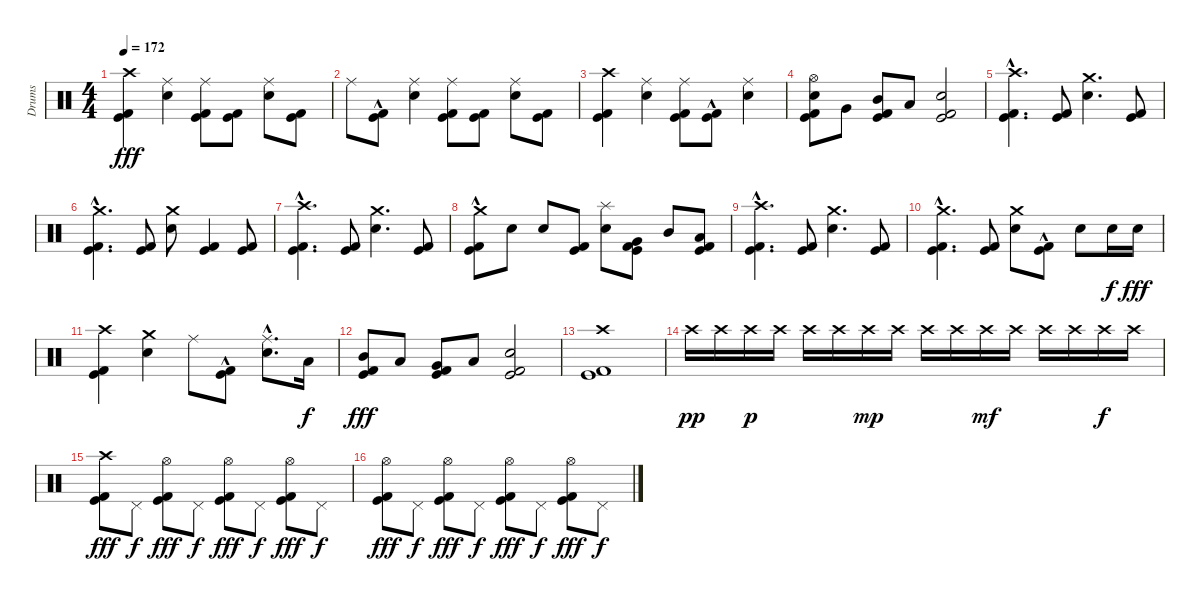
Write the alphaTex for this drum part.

\track ("Drums" "Drums") {instrument percussion}
\staff {score}
\articulation defaults
\ts (4 4)
\tempo 172
\clef neutral
\ks c
("Kick (hit)" "Kick (hit) 2" "Crash high (hit)").4{dy fff} ("Electric Snare (hit)" "Ride (middle)").4 ("Kick (hit)" "Kick (hit) 2" "Ride (middle)").8 ("Kick (hit)" "Kick (hit) 2").8 ("Electric Snare (hit)" "Ride (middle)").8 ("Kick (hit)" "Kick (hit) 2").8 |
"Ride (middle)".8 ("Kick (hit)"{hac} "Kick (hit) 2"{hac}).8 ("Electric Snare (hit)" "Ride (middle)").4 ("Kick (hit)" "Kick (hit) 2" "Ride (middle)").8 ("Kick (hit)" "Kick (hit) 2").8 ("Electric Snare (hit)" "Ride (middle)").8 ("Kick (hit)" "Kick (hit) 2").8 |
("Kick (hit)" "Kick (hit) 2" "Crash high (hit)").4 ("Electric Snare (hit)" "Ride (middle)").4 ("Kick (hit)" "Kick (hit) 2" "Ride (middle)").8 ("Kick (hit)"{hac} "Kick (hit) 2"{hac}).8 ("Electric Snare (hit)" "Ride (middle)").4 |
("Kick (hit)" "Kick (hit) 2" "Electric Snare (hit)" "Hi-Hat (open)").8 "Very Low Tom (hit)".8 ("Kick (hit)" "Kick (hit) 2" "Mid Tom (hit)").8 "Low Tom (hit)".8 ("Kick (hit)" "Kick (hit) 2" "Electric Snare (hit)").2 |
("Kick (hit)"{hac} "Kick (hit) 2"{hac} "Crash high (hit)").4{d} ("Kick (hit)" "Kick (hit) 2").8 ("Electric Snare (hit)" "Crash medium (hit)").4{d} ("Kick (hit)" "Kick (hit) 2").8 |
("Kick (hit)"{hac} "Kick (hit) 2"{hac} "Crash medium (hit)").4{d} ("Kick (hit)" "Kick (hit) 2").8 ("Electric Snare (hit)" "Crash medium (hit)").8 ("Kick (hit)" "Kick (hit) 2").4 ("Kick (hit)" "Kick (hit) 2").8 |
("Kick (hit)"{hac} "Kick (hit) 2"{hac} "Crash high (hit)").4{d} ("Kick (hit)" "Kick (hit) 2").8 ("Electric Snare (hit)" "Crash medium (hit)").4{d} ("Kick (hit)" "Kick (hit) 2").8 |
("Kick (hit)"{hac} "Kick (hit) 2"{hac} "Crash medium (hit)").8 "Electric Snare (hit)".8 "Electric Snare (hit)".8 ("Kick (hit)" "Kick (hit) 2").8 ("Electric Snare (hit)" "Splash (hit)").8 ("Kick (hit)" "Kick (hit) 2" "Very Low Tom (hit)").8 "Mid Tom (hit)".8 ("Kick (hit)" "Kick (hit) 2" "Low Tom (hit)").8 |
("Kick (hit)"{hac} "Kick (hit) 2"{hac} "Crash high (hit)").4{d} ("Kick (hit)" "Kick (hit) 2").8 ("Electric Snare (hit)" "Crash medium (hit)").4{d} ("Kick (hit)" "Kick (hit) 2").8 |
("Kick (hit)"{hac} "Kick (hit) 2"{hac} "Crash medium (hit)").4{d} ("Kick (hit)" "Kick (hit) 2").8 ("Electric Snare (hit)" "Crash medium (hit)").8 ("Kick (hit)"{hac} "Kick (hit) 2"{hac}).8 "Electric Snare (hit)".8 "Electric Snare (hit)".16{dy f} "Electric Snare (hit)".16{dy fff} |
("Kick (hit)" "Kick (hit) 2" "Crash high (hit)").4 ("Electric Snare (hit)" "Crash medium (hit)").4 "Ride (middle)".8 ("Kick (hit)"{hac} "Kick (hit) 2"{hac}).8 ("Electric Snare (hit)"{hac} "Ride (middle)").8{d} "Low Tom (hit)".16{dy f} |
("Kick (hit)" "Kick (hit) 2" "Mid Tom (hit)").8{dy fff} "Low Tom (hit)".8 ("Kick (hit)" "Kick (hit) 2" "Very Low Tom (hit)").8 "Low Tom (hit)".8 ("Kick (hit)" "Kick (hit) 2" "Electric Snare (hit)").2 |
("Kick (hit)" "Kick (hit) 2" "Crash high (hit)").1 |
"Crash high (hit)".16{dy pp} "Crash high (hit)".16 "Crash high (hit)".16{dy p} "Crash high (hit)".16 "Crash high (hit)".16 "Crash high (hit)".16 "Crash high (hit)".16{dy mp} "Crash high (hit)".16 "Crash high (hit)".16 "Crash high (hit)".16 "Crash high (hit)".16{dy mf} "Crash high (hit)".16 "Crash high (hit)".16 "Crash high (hit)".16 "Crash high (hit)".16{dy f} "Crash high (hit)".16 |
("Kick (hit)" "Kick (hit) 2" "Crash high (hit)").8{dy fff} "Pedal Hi-Hat (hit)".8{dy f} ("Kick (hit)" "Kick (hit) 2" "Hi-Hat (open)").8{dy fff} "Pedal Hi-Hat (hit)".8{dy f} ("Kick (hit)" "Kick (hit) 2" "Hi-Hat (open)").8{dy fff} "Pedal Hi-Hat (hit)".8{dy f} ("Kick (hit)" "Kick (hit) 2" "Hi-Hat (open)").8{dy fff} "Pedal Hi-Hat (hit)".8{dy f} |
("Kick (hit)" "Kick (hit) 2" "Hi-Hat (open)").8{dy fff} "Pedal Hi-Hat (hit)".8{dy f} ("Kick (hit)" "Kick (hit) 2" "Hi-Hat (open)").8{dy fff} "Pedal Hi-Hat (hit)".8{dy f} ("Kick (hit)" "Kick (hit) 2" "Hi-Hat (open)").8{dy fff} "Pedal Hi-Hat (hit)".8{dy f} ("Kick (hit)" "Kick (hit) 2" "Hi-Hat (open)").8{dy fff} "Pedal Hi-Hat (hit)".8{dy f}
